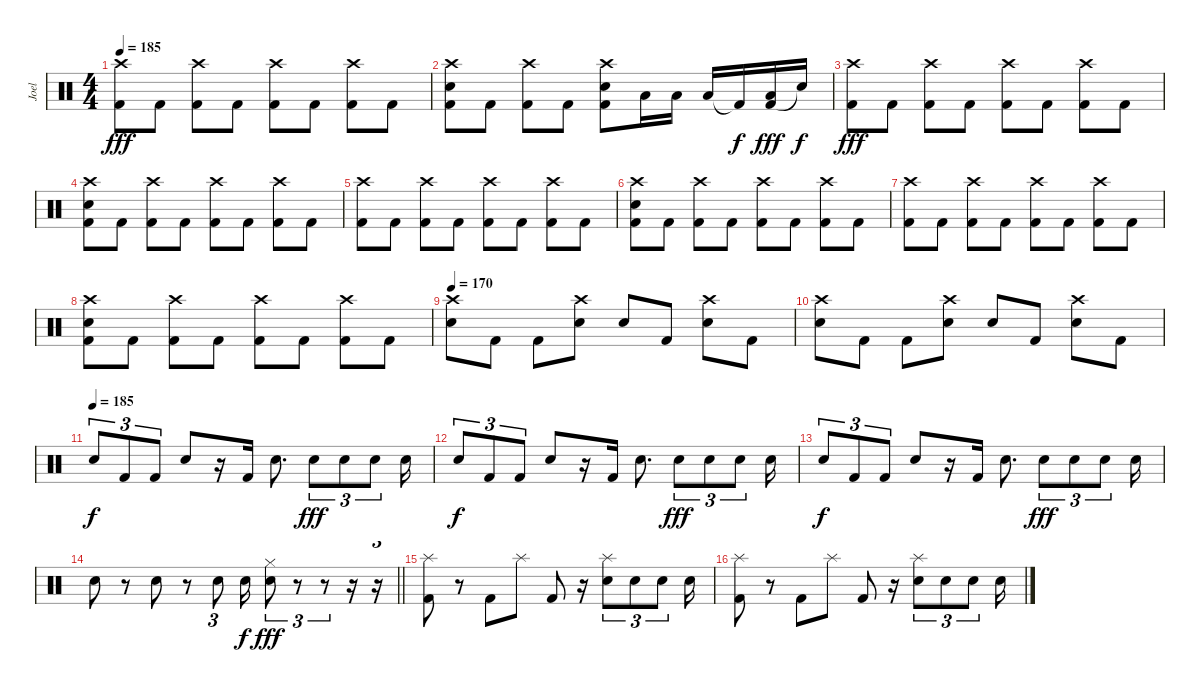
\track ("Joel" "Joel") {instrument percussion}
\staff {score}
\articulation defaults
\ts (4 4)
\tempo 185
\clef neutral
\ks c
("Crash high (hit)" "Kick (hit) 2").8{dy fff} "Kick (hit) 2".8 ("Crash high (hit)" "Kick (hit) 2").8 "Kick (hit) 2".8 ("Crash high (hit)" "Kick (hit) 2").8 "Kick (hit) 2".8 ("Crash high (hit)" "Kick (hit) 2").8 "Kick (hit) 2".8 |
("Crash high (hit)" "Electric Snare (hit)" "Kick (hit) 2").8 "Kick (hit) 2".8 ("Crash high (hit)" "Kick (hit) 2").8 "Kick (hit) 2".8 ("Crash high (hit)" "Electric Snare (hit)" "Kick (hit) 2").8 "Low Tom (hit)".16 "Low Tom (hit)".16 "Low Tom (hit)".16 "Kick (hit) 2"{t}.16{dy f} ("Kick (hit) 2" "Low Floor Tom (hit)").16{dy fff} "Snare (hit)"{t}.16{dy f} |
("Crash high (hit)" "Kick (hit) 2").8{dy fff} "Kick (hit) 2".8 ("Crash high (hit)" "Kick (hit) 2").8 "Kick (hit) 2".8 ("Crash high (hit)" "Kick (hit) 2").8 "Kick (hit) 2".8 ("Crash high (hit)" "Kick (hit) 2").8 "Kick (hit) 2".8 |
("Crash high (hit)" "Electric Snare (hit)" "Kick (hit) 2").8 "Kick (hit) 2".8 ("Crash high (hit)" "Kick (hit) 2").8 "Kick (hit) 2".8 ("Crash high (hit)" "Kick (hit) 2").8 "Kick (hit) 2".8 ("Crash high (hit)" "Kick (hit) 2").8 "Kick (hit) 2".8 |
("Crash high (hit)" "Kick (hit) 2").8 "Kick (hit) 2".8 ("Crash high (hit)" "Kick (hit) 2").8 "Kick (hit) 2".8 ("Crash high (hit)" "Kick (hit) 2").8 "Kick (hit) 2".8 ("Crash high (hit)" "Kick (hit) 2").8 "Kick (hit) 2".8 |
("Crash high (hit)" "Electric Snare (hit)" "Kick (hit) 2").8 "Kick (hit) 2".8 ("Crash high (hit)" "Kick (hit) 2").8 "Kick (hit) 2".8 ("Crash high (hit)" "Kick (hit) 2").8 "Kick (hit) 2".8 ("Crash high (hit)" "Kick (hit) 2").8 "Kick (hit) 2".8 |
("Crash high (hit)" "Kick (hit) 2").8 "Kick (hit) 2".8 ("Crash high (hit)" "Kick (hit) 2").8 "Kick (hit) 2".8 ("Crash high (hit)" "Kick (hit) 2").8 "Kick (hit) 2".8 ("Crash high (hit)" "Kick (hit) 2").8 "Kick (hit) 2".8 |
("Crash high (hit)" "Electric Snare (hit)" "Kick (hit) 2").8 "Kick (hit) 2".8 ("Crash high (hit)" "Kick (hit) 2").8 "Kick (hit) 2".8 ("Crash high (hit)" "Kick (hit) 2").8 "Kick (hit) 2".8 ("Crash high (hit)" "Kick (hit) 2").8 "Kick (hit) 2".8 |
\tempo 170
("Crash high (hit)" "Electric Snare (hit)").8 "Kick (hit) 2".8 "Kick (hit) 2".8 ("Crash high (hit)" "Electric Snare (hit)").8 "Electric Snare (hit)".8 "Kick (hit) 2".8 ("Crash high (hit)" "Electric Snare (hit)").8 "Kick (hit) 2".8 |
("Crash high (hit)" "Electric Snare (hit)").8 "Kick (hit) 2".8 "Kick (hit) 2".8 ("Crash high (hit)" "Electric Snare (hit)").8 "Electric Snare (hit)".8 "Kick (hit) 2".8 ("Crash high (hit)" "Electric Snare (hit)").8 "Kick (hit) 2".8 |
\tempo (185)
"Electric Snare (hit)".8{tu (3 2) dy f} "Kick (hit) 2".8{tu (3 2)} "Kick (hit) 2".8{tu (3 2)} "Electric Snare (hit)".8 r.16 "Kick (hit) 2".16 "Electric Snare (hit)".8{d} "Electric Snare (hit)".8{tu (3 2) dy fff} "Electric Snare (hit)".8{tu (3 2)} "Electric Snare (hit)".8{tu (3 2)} "Electric Snare (hit)".16 |
"Electric Snare (hit)".8{tu (3 2) dy f} "Kick (hit) 2".8{tu (3 2)} "Kick (hit) 2".8{tu (3 2)} "Electric Snare (hit)".8 r.16 "Kick (hit) 2".16 "Electric Snare (hit)".8{d} "Electric Snare (hit)".8{tu (3 2) dy fff} "Electric Snare (hit)".8{tu (3 2)} "Electric Snare (hit)".8{tu (3 2)} "Electric Snare (hit)".16 |
"Electric Snare (hit)".8{tu (3 2) dy f} "Kick (hit) 2".8{tu (3 2)} "Kick (hit) 2".8{tu (3 2)} "Electric Snare (hit)".8 r.16 "Kick (hit) 2".16 "Electric Snare (hit)".8{d} "Electric Snare (hit)".8{tu (3 2) dy fff} "Electric Snare (hit)".8{tu (3 2)} "Electric Snare (hit)".8{tu (3 2)} "Electric Snare (hit)".16 |
\barLineRight lightlight "Electric Snare (hit)".8
r.8 "Electric Snare (hit)".8 r.8 "Electric Snare (hit)".8{tu (3 2)} "Electric Snare (hit)".16{dy f} ("Hi-Hat (closed)" "Electric Snare (hit)").8{tu (3 2) dy fff} r.8{tu (3 2)} r.8{tu (3 2)} r.16 r.16{tu (3 2)} |
\section ("" "")
("Splash (hit)" "Kick (hit) 2").8 r.8 "Kick (hit) 2".8 "Splash (hit)".8 "Kick (hit) 2".8 r.16 ("Splash (hit)" "Electric Snare (hit)").8{tu (3 2)} "Electric Snare (hit)".8{tu (3 2)} "Electric Snare (hit)".8{tu (3 2)} "Electric Snare (hit)".16 |
("Splash (hit)" "Kick (hit) 2").8 r.8 "Kick (hit) 2".8 "Splash (hit)".8 "Kick (hit) 2".8 r.16 ("Splash (hit)" "Electric Snare (hit)").8{tu (3 2)} "Electric Snare (hit)".8{tu (3 2)} "Electric Snare (hit)".8{tu (3 2)} "Electric Snare (hit)".16
